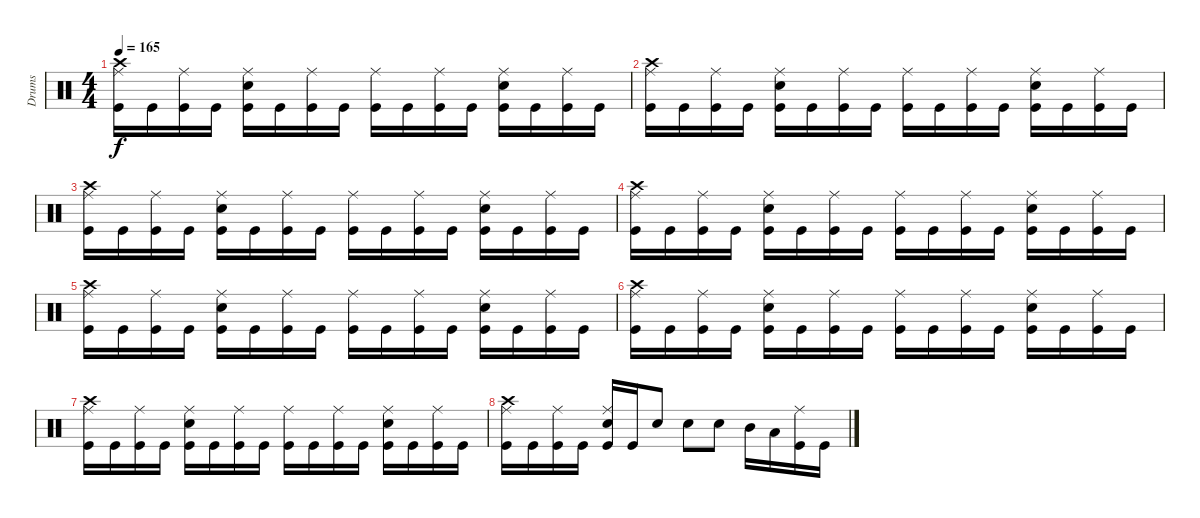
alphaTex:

\track ("Drums" "Drums") {instrument percussion}
\staff {score}
\articulation defaults
\ts (4 4)
\tempo 165
\clef neutral
\ks c
("Kick (hit)" "Ride (middle)" "Crash high (hit)").16{dy f} "Kick (hit)".16 ("Kick (hit)" "Ride (middle)").16 "Kick (hit)".16 ("Kick (hit)" "Snare (hit) 2" "Ride (middle)").16 "Kick (hit)".16 ("Kick (hit)" "Ride (middle)").16 "Kick (hit)".16 ("Kick (hit)" "Ride (middle)").16 "Kick (hit)".16 ("Kick (hit)" "Ride (middle)").16 "Kick (hit)".16 ("Kick (hit)" "Snare (hit) 2" "Ride (middle)").16 "Kick (hit)".16 ("Kick (hit)" "Ride (middle)").16 "Kick (hit)".16 |
("Kick (hit)" "Ride (middle)" "Crash high (hit)").16 "Kick (hit)".16 ("Kick (hit)" "Ride (middle)").16 "Kick (hit)".16 ("Kick (hit)" "Snare (hit) 2" "Ride (middle)").16 "Kick (hit)".16 ("Kick (hit)" "Ride (middle)").16 "Kick (hit)".16 ("Kick (hit)" "Ride (middle)").16 "Kick (hit)".16 ("Kick (hit)" "Ride (middle)").16 "Kick (hit)".16 ("Kick (hit)" "Snare (hit) 2" "Ride (middle)").16 "Kick (hit)".16 ("Kick (hit)" "Ride (middle)").16 "Kick (hit)".16 |
("Kick (hit)" "Ride (middle)" "Crash high (hit)").16 "Kick (hit)".16 ("Kick (hit)" "Ride (middle)").16 "Kick (hit)".16 ("Kick (hit)" "Snare (hit) 2" "Ride (middle)").16 "Kick (hit)".16 ("Kick (hit)" "Ride (middle)").16 "Kick (hit)".16 ("Kick (hit)" "Ride (middle)").16 "Kick (hit)".16 ("Kick (hit)" "Ride (middle)").16 "Kick (hit)".16 ("Kick (hit)" "Snare (hit) 2" "Ride (middle)").16 "Kick (hit)".16 ("Kick (hit)" "Ride (middle)").16 "Kick (hit)".16 |
("Kick (hit)" "Ride (middle)" "Crash high (hit)").16 "Kick (hit)".16 ("Kick (hit)" "Ride (middle)").16 "Kick (hit)".16 ("Kick (hit)" "Snare (hit) 2" "Ride (middle)").16 "Kick (hit)".16 ("Kick (hit)" "Ride (middle)").16 "Kick (hit)".16 ("Kick (hit)" "Ride (middle)").16 "Kick (hit)".16 ("Kick (hit)" "Ride (middle)").16 "Kick (hit)".16 ("Kick (hit)" "Snare (hit) 2" "Ride (middle)").16 "Kick (hit)".16 ("Kick (hit)" "Ride (middle)").16 "Kick (hit)".16 |
("Kick (hit)" "Ride (middle)" "Crash high (hit)").16 "Kick (hit)".16 ("Kick (hit)" "Ride (middle)").16 "Kick (hit)".16 ("Kick (hit)" "Snare (hit) 2" "Ride (middle)").16 "Kick (hit)".16 ("Kick (hit)" "Ride (middle)").16 "Kick (hit)".16 ("Kick (hit)" "Ride (middle)").16 "Kick (hit)".16 ("Kick (hit)" "Ride (middle)").16 "Kick (hit)".16 ("Kick (hit)" "Snare (hit) 2" "Ride (middle)").16 "Kick (hit)".16 ("Kick (hit)" "Ride (middle)").16 "Kick (hit)".16 |
("Kick (hit)" "Ride (middle)" "Crash high (hit)").16 "Kick (hit)".16 ("Kick (hit)" "Ride (middle)").16 "Kick (hit)".16 ("Kick (hit)" "Snare (hit) 2" "Ride (middle)").16 "Kick (hit)".16 ("Kick (hit)" "Ride (middle)").16 "Kick (hit)".16 ("Kick (hit)" "Ride (middle)").16 "Kick (hit)".16 ("Kick (hit)" "Ride (middle)").16 "Kick (hit)".16 ("Kick (hit)" "Snare (hit) 2" "Ride (middle)").16 "Kick (hit)".16 ("Kick (hit)" "Ride (middle)").16 "Kick (hit)".16 |
("Kick (hit)" "Ride (middle)" "Crash high (hit)").16 "Kick (hit)".16 ("Kick (hit)" "Ride (middle)").16 "Kick (hit)".16 ("Kick (hit)" "Snare (hit) 2" "Ride (middle)").16 "Kick (hit)".16 ("Kick (hit)" "Ride (middle)").16 "Kick (hit)".16 ("Kick (hit)" "Ride (middle)").16 "Kick (hit)".16 ("Kick (hit)" "Ride (middle)").16 "Kick (hit)".16 ("Kick (hit)" "Snare (hit) 2" "Ride (middle)").16 "Kick (hit)".16 ("Kick (hit)" "Ride (middle)").16 "Kick (hit)".16 |
("Kick (hit)" "Ride (middle)" "Crash high (hit)").16 "Kick (hit)".16 ("Kick (hit)" "Ride (middle)").16 "Kick (hit)".16 ("Kick (hit)" "Snare (hit) 2" "Ride (middle)").16 "Kick (hit)".16 "Snare (hit) 2".8 "Snare (hit) 2".8 "Snare (hit) 2".8 "Mid Tom (hit)".16 "Low Tom (hit)".16 ("Kick (hit)" "Ride (middle)").16 "Kick (hit)".16
